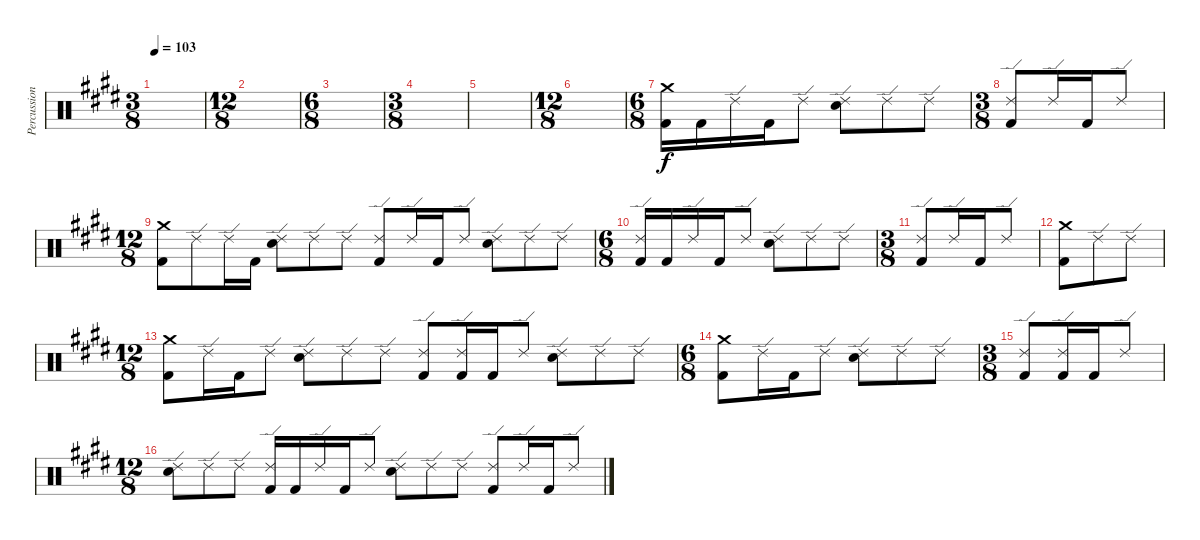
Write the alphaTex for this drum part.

\track ("Percussion" "Percussion") {instrument percussion}
\staff {score}
\articulation defaults
\ts (3 8)
\tempo 103
\clef neutral
\ks c#minor
|
\ts (12 8)
|
\ts (6 8)
\ks e
|
\ts (3 8)
\ks c#minor
|
|
\ts (12 8)
|
\ts (6 8)
\ks e
("Crash medium (hit)" "Kick (hit) 2").16{dy f beam merge} "Kick (hit) 2".16{beam merge} "Ride (edge) 2".16{beam merge} "Kick (hit) 2".16{beam merge} "Ride (edge) 2".8{beam split} ("Ride (edge) 2" "Electric Snare (hit)").8{beam merge} "Ride (edge) 2".8 "Ride (edge) 2".8 |
\ts (3 8)
\ks c#minor
("Ride (edge) 2" "Kick (hit) 2").8{beam merge} "Ride (edge) 2".16 "Kick (hit) 2".16{beam merge} "Ride (edge) 2".8 |
\ts (12 8)
("Crash medium (hit)" "Kick (hit) 2").8 "Ride (edge) 2".8{beam merge} "Ride (edge) 2".16 "Kick (hit) 2".16 ("Ride (edge) 2" "Electric Snare (hit)").8 "Ride (edge) 2".8 "Ride (edge) 2".8 ("Ride (edge) 2" "Kick (hit) 2").8 "Ride (edge) 2".16 "Kick (hit) 2".16 "Ride (edge) 2".8 ("Ride (edge) 2" "Electric Snare (hit)").8 "Ride (edge) 2".8 "Ride (edge) 2".8 |
\ts (6 8)
\ks e
("Ride (edge) 2" "Kick (hit) 2").16 "Kick (hit) 2".16 "Ride (edge) 2".16 "Kick (hit) 2".16 "Ride (edge) 2".8 ("Ride (edge) 2" "Electric Snare (hit)").8 "Ride (edge) 2".8 "Ride (edge) 2".8 |
\ts (3 8)
\ks c#minor
("Ride (edge) 2" "Kick (hit) 2").8{beam merge} "Ride (edge) 2".16 "Kick (hit) 2".16{beam merge} "Ride (edge) 2".8 |
("Crash medium (hit)" "Kick (hit) 2").8 "Ride (edge) 2".8{beam merge} "Ride (edge) 2".8 |
\ts (12 8)
("Crash medium (hit)" "Kick (hit) 2").8 "Ride (edge) 2".16 "Kick (hit) 2".16 "Ride (edge) 2".8 ("Ride (edge) 2" "Electric Snare (hit)").8 "Ride (edge) 2".8 "Ride (edge) 2".8 ("Ride (edge) 2" "Kick (hit) 2").8 ("Ride (edge) 2" "Kick (hit) 2").16 "Kick (hit) 2".16 "Ride (edge) 2".8 ("Ride (edge) 2" "Electric Snare (hit)").8 "Ride (edge) 2".8 "Ride (edge) 2".8 |
\ts (6 8)
\ks e
("Crash medium (hit)" "Kick (hit) 2").8{beam merge} "Ride (edge) 2".16{beam merge} "Kick (hit) 2".16{beam merge} "Ride (edge) 2".8{beam split} ("Ride (edge) 2" "Electric Snare (hit)").8{beam merge} "Ride (edge) 2".8 "Ride (edge) 2".8 |
\ts (3 8)
\ks c#minor
("Ride (edge) 2" "Kick (hit) 2").8{beam merge} ("Ride (edge) 2" "Kick (hit) 2").16 "Kick (hit) 2".16{beam merge} "Ride (edge) 2".8 |
\ts (12 8)
("Ride (edge) 2" "Electric Snare (hit)").8 "Ride (edge) 2".8{beam merge} "Ride (edge) 2".8 ("Ride (edge) 2" "Kick (hit) 2").16 "Kick (hit) 2".16 "Ride (edge) 2".16 "Kick (hit) 2".16 "Ride (edge) 2".8 ("Ride (edge) 2" "Electric Snare (hit)").8 "Ride (edge) 2".8{beam merge} "Ride (edge) 2".8 ("Ride (edge) 2" "Kick (hit) 2").8 "Ride (edge) 2".16 "Kick (hit) 2".16 "Ride (edge) 2".8
